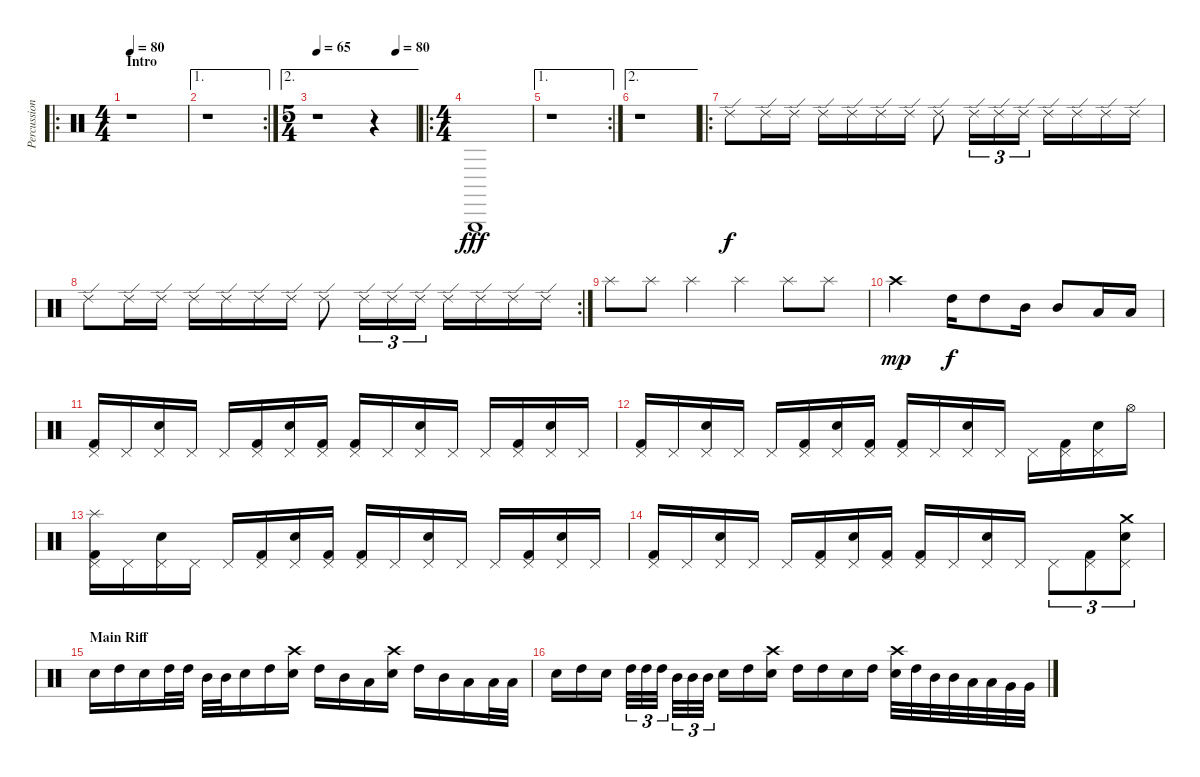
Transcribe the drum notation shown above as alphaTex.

\track ("Percussion" "Percussion") {instrument percussion}
\staff {score}
\articulation defaults
\ro
\ts (4 4)
\section ("" "Intro")
\tempo 80
\clef neutral
\ks c
r.1{dy fff} |
\ae 1
\rc 2
r.1 |
\ae 2
\ts (5 4)
\tempo 65
\tempo (80 0.8)
r.1 r.4 |
\ro
\ts (4 4)
"Triangle (hit)".1 |
\ae 1
\rc 2
r.1 |
\ae 2
r.1 |
\ro "Ride (edge) 2".8{dy f} "Ride (edge) 2".16 "Ride (edge) 2".16 "Ride (edge) 2".16 "Ride (edge) 2".16 "Ride (edge) 2".16 "Ride (edge) 2".16 "Ride (edge) 2".8 "Ride (edge) 2".16{tu (3 2)} "Ride (edge) 2".16{tu (3 2)} "Ride (edge) 2".16{tu (3 2)} "Ride (edge) 2".16 "Ride (edge) 2".16 "Ride (edge) 2".16 "Ride (edge) 2".16
|
\rc 2 "Ride (edge) 2".8 "Ride (edge) 2".16 "Ride (edge) 2".16 "Ride (edge) 2".16 "Ride (edge) 2".16 "Ride (edge) 2".16 "Ride (edge) 2".16 "Ride (edge) 2".8 "Ride (edge) 2".16{tu (3 2)} "Ride (edge) 2".16{tu (3 2)} "Ride (edge) 2".16{tu (3 2)} "Ride (edge) 2".16 "Ride (edge) 2".16 "Ride (edge) 2".16 "Ride (edge) 2".16
|
"Splash (hit)".8 "Splash (hit)".8 "Splash (hit)".4 "Splash (hit)".4 "Splash (hit)".8 "Splash (hit)".8 |
"Crash high (hit)".2{dy mp} "High Tom (hit)".16{dy f} "High Tom (hit)".8 "Mid Tom (hit)".16 "Mid Tom (hit)".8 "Low Tom (hit)".16 "Low Tom (hit)".16 |
("Pedal Hi-Hat (hit)" "Kick (hit) 2").16 "Pedal Hi-Hat (hit)".16 ("Pedal Hi-Hat (hit)" "Electric Snare (hit)").16 "Pedal Hi-Hat (hit)".16 "Pedal Hi-Hat (hit)".16 ("Pedal Hi-Hat (hit)" "Kick (hit) 2").16 ("Pedal Hi-Hat (hit)" "Electric Snare (hit)").16 ("Pedal Hi-Hat (hit)" "Kick (hit) 2").16 ("Pedal Hi-Hat (hit)" "Kick (hit) 2").16 "Pedal Hi-Hat (hit)".16 ("Pedal Hi-Hat (hit)" "Electric Snare (hit)").16 "Pedal Hi-Hat (hit)".16 "Pedal Hi-Hat (hit)".16 ("Pedal Hi-Hat (hit)" "Kick (hit) 2").16 ("Pedal Hi-Hat (hit)" "Electric Snare (hit)").16 "Pedal Hi-Hat (hit)".16 |
("Pedal Hi-Hat (hit)" "Kick (hit) 2").16 "Pedal Hi-Hat (hit)".16 ("Pedal Hi-Hat (hit)" "Electric Snare (hit)").16 "Pedal Hi-Hat (hit)".16 "Pedal Hi-Hat (hit)".16 ("Pedal Hi-Hat (hit)" "Kick (hit) 2").16 ("Pedal Hi-Hat (hit)" "Electric Snare (hit)").16 ("Pedal Hi-Hat (hit)" "Kick (hit) 2").16 ("Pedal Hi-Hat (hit)" "Kick (hit) 2").16 "Pedal Hi-Hat (hit)".16 ("Pedal Hi-Hat (hit)" "Electric Snare (hit)").16 "Pedal Hi-Hat (hit)".16 "Pedal Hi-Hat (hit)".16 ("Pedal Hi-Hat (hit)" "Kick (hit) 2").16 ("Pedal Hi-Hat (hit)" "Electric Snare (hit)").16 "Hi-Hat (open)".16 |
("Splash (hit)" "Pedal Hi-Hat (hit)" "Kick (hit) 2").16 "Pedal Hi-Hat (hit)".16 ("Pedal Hi-Hat (hit)" "Electric Snare (hit)").16 "Pedal Hi-Hat (hit)".16 "Pedal Hi-Hat (hit)".16 ("Pedal Hi-Hat (hit)" "Kick (hit) 2").16 ("Pedal Hi-Hat (hit)" "Electric Snare (hit)").16 ("Pedal Hi-Hat (hit)" "Kick (hit) 2").16 ("Pedal Hi-Hat (hit)" "Kick (hit) 2").16 "Pedal Hi-Hat (hit)".16 ("Pedal Hi-Hat (hit)" "Electric Snare (hit)").16 "Pedal Hi-Hat (hit)".16 "Pedal Hi-Hat (hit)".16 ("Pedal Hi-Hat (hit)" "Kick (hit) 2").16 ("Pedal Hi-Hat (hit)" "Electric Snare (hit)").16 "Pedal Hi-Hat (hit)".16 |
("Pedal Hi-Hat (hit)" "Kick (hit) 2").16 "Pedal Hi-Hat (hit)".16 ("Pedal Hi-Hat (hit)" "Electric Snare (hit)").16 "Pedal Hi-Hat (hit)".16 "Pedal Hi-Hat (hit)".16 ("Pedal Hi-Hat (hit)" "Kick (hit) 2").16 ("Pedal Hi-Hat (hit)" "Electric Snare (hit)").16 ("Pedal Hi-Hat (hit)" "Kick (hit) 2").16 ("Pedal Hi-Hat (hit)" "Kick (hit) 2").16 "Pedal Hi-Hat (hit)".16 ("Pedal Hi-Hat (hit)" "Electric Snare (hit)").16 "Pedal Hi-Hat (hit)".16 "Pedal Hi-Hat (hit)".8{tu (3 2)} ("Pedal Hi-Hat (hit)" "Kick (hit) 2").8{tu (3 2)} ("Crash medium (hit)" "Pedal Hi-Hat (hit)" "Electric Snare (hit)").8{tu (3 2)} |
\section ("" "Main Riff")
"Electric Snare (hit)".16 "High Tom (hit)".16 "Electric Snare (hit)".16 "High Tom (hit)".32 "High Tom (hit)".32 "Mid Tom (hit)".32 "Mid Tom (hit)".32 "Electric Snare (hit)".16 "High Tom (hit)".16 ("Crash high (hit)" "Electric Snare (hit)").16 "High Tom (hit)".16 "Mid Tom (hit)".16 "Low Tom (hit)".16 ("Crash high (hit)" "Electric Snare (hit)").16 "High Tom (hit)".16 "Mid Tom (hit)".16 "Low Tom (hit)".16 "Low Tom (hit)".32 "Low Tom (hit)".32 |
"Electric Snare (hit)".16 "High Tom (hit)".16 "Electric Snare (hit)".16 "High Tom (hit)".32{tu (3 2)} "High Tom (hit)".32{tu (3 2)} "High Tom (hit)".32{tu (3 2)} "Mid Tom (hit)".32{tu (3 2)} "Mid Tom (hit)".32{tu (3 2)} "Mid Tom (hit)".32{tu (3 2)} "Electric Snare (hit)".16 "High Tom (hit)".16 ("Crash high (hit)" "Electric Snare (hit)").16 "High Tom (hit)".16 "High Tom (hit)".16 "Electric Snare (hit)".16 "High Tom (hit)".16 ("Crash high (hit)" "Electric Snare (hit)").32 "High Tom (hit)".32 "Mid Tom (hit)".32 "Mid Tom (hit)".32 "Low Tom (hit)".32 "Low Tom (hit)".32 "Very Low Tom (hit)".32 "Very Low Tom (hit)".32
